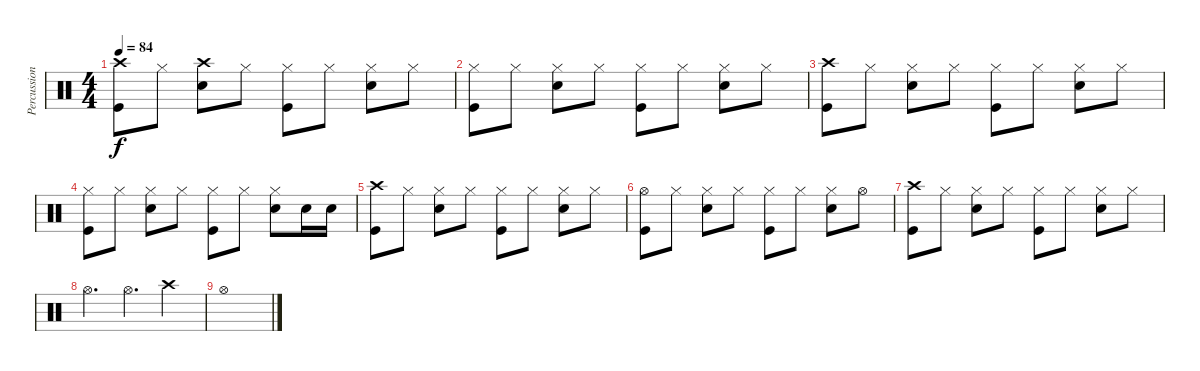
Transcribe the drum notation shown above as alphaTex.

\track ("Percussion" "Percussion") {instrument percussion}
\staff {score}
\articulation defaults
\ts (4 4)
\tempo 84
\clef neutral
\ks c
("Crash high (hit)" "Kick (hit)").8{dy f} "Hi-Hat (closed)".8 ("Crash high (hit)" "Snare (hit) 2").8 "Hi-Hat (closed)".8 ("Hi-Hat (closed)" "Kick (hit)").8 "Hi-Hat (closed)".8 ("Hi-Hat (closed)" "Snare (hit) 2").8 "Hi-Hat (closed)".8 |
("Hi-Hat (closed)" "Kick (hit)").8 "Hi-Hat (closed)".8 ("Hi-Hat (closed)" "Snare (hit) 2").8 "Hi-Hat (closed)".8 ("Hi-Hat (closed)" "Kick (hit)").8 "Hi-Hat (closed)".8 ("Hi-Hat (closed)" "Snare (hit) 2").8 "Hi-Hat (closed)".8 |
("Crash high (hit)" "Kick (hit)").8 "Hi-Hat (closed)".8 ("Hi-Hat (closed)" "Snare (hit) 2").8 "Hi-Hat (closed)".8 ("Hi-Hat (closed)" "Kick (hit)").8 "Hi-Hat (closed)".8 ("Hi-Hat (closed)" "Snare (hit) 2").8 "Hi-Hat (closed)".8 |
("Hi-Hat (closed)" "Kick (hit)").8 "Hi-Hat (closed)".8 ("Hi-Hat (closed)" "Snare (hit) 2").8 "Hi-Hat (closed)".8 ("Hi-Hat (closed)" "Kick (hit)").8 "Hi-Hat (closed)".8 ("Hi-Hat (closed)" "Snare (hit) 2").8 "Snare (hit) 2".16 "Snare (hit) 2".16 |
("Crash high (hit)" "Kick (hit)").8 "Hi-Hat (closed)".8 ("Hi-Hat (closed)" "Snare (hit) 2").8 "Hi-Hat (closed)".8 ("Hi-Hat (closed)" "Kick (hit)").8 "Hi-Hat (closed)".8 ("Hi-Hat (closed)" "Snare (hit) 2").8 "Hi-Hat (closed)".8 |
("Hi-Hat (open)" "Kick (hit)").8 "Hi-Hat (closed)".8 ("Hi-Hat (closed)" "Snare (hit) 2").8 "Hi-Hat (closed)".8 ("Hi-Hat (closed)" "Kick (hit)").8 "Hi-Hat (closed)".8 ("Hi-Hat (closed)" "Snare (hit) 2").8 "Hi-Hat (open)".8 |
("Crash high (hit)" "Kick (hit)").8 "Hi-Hat (closed)".8 ("Hi-Hat (closed)" "Snare (hit) 2").8 "Hi-Hat (closed)".8 ("Hi-Hat (closed)" "Kick (hit)").8 "Hi-Hat (closed)".8 ("Hi-Hat (closed)" "Snare (hit) 2").8 "Hi-Hat (closed)".8 |
"Hi-Hat (open)".4{d} "Hi-Hat (open)".4{d} "Crash high (hit)".4 |
"Hi-Hat (open)".1
